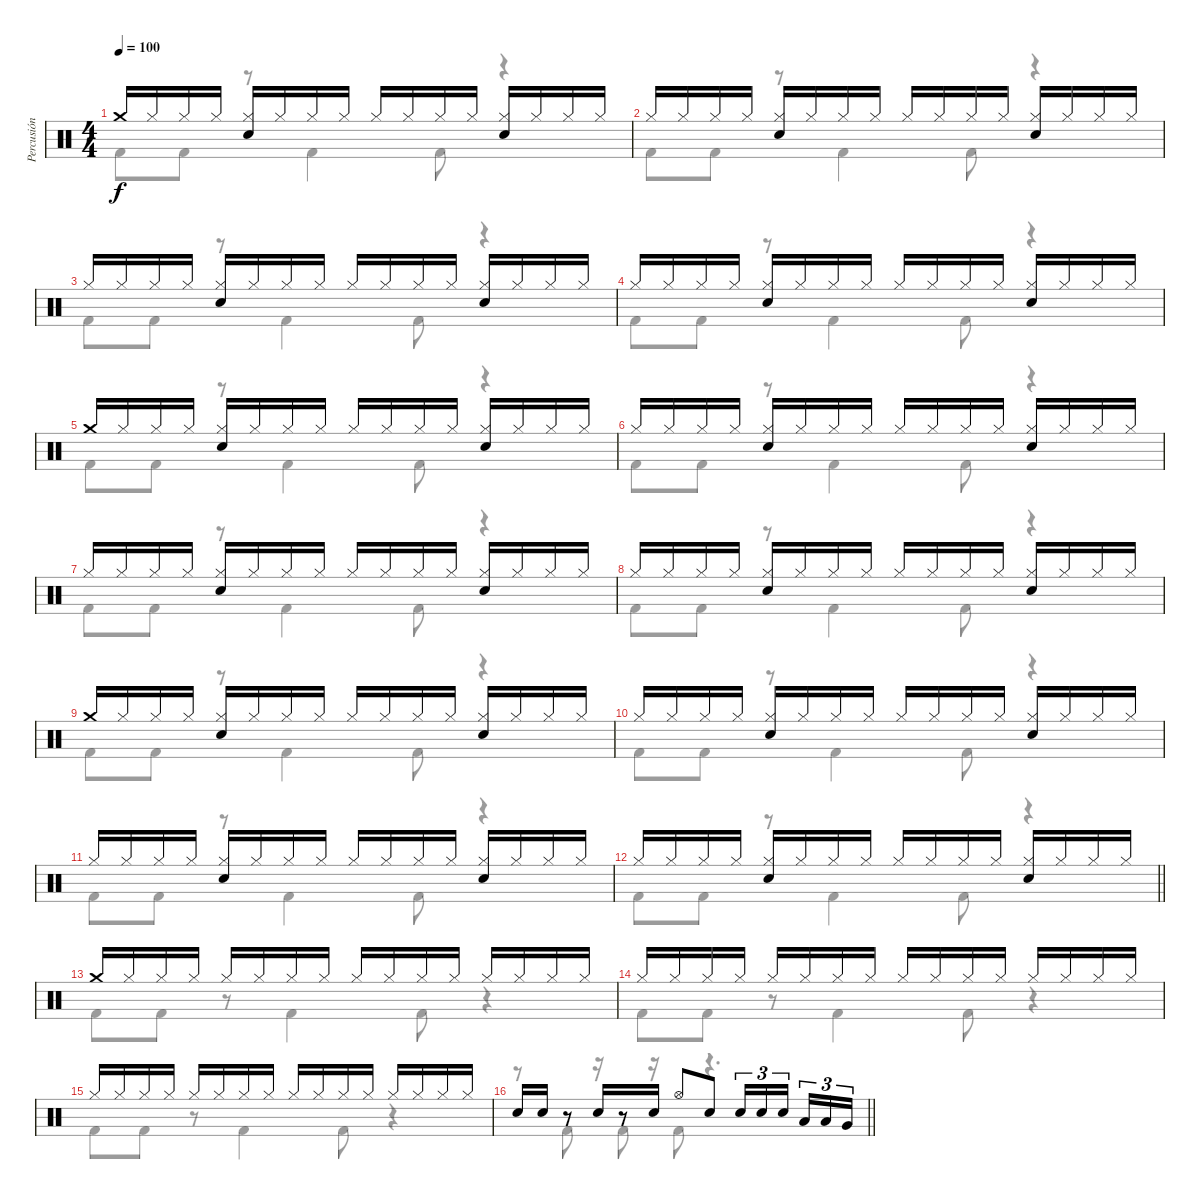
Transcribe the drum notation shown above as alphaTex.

\track ("Percusión" "Percusión") {instrument percussion}
\staff {score}
\articulation defaults
\voice
\ts (4 4)
\tempo 100
\clef neutral
\ks c "Crash medium (hit)".16{dy f} "Hi-Hat (closed)".16 "Hi-Hat (closed)".16 "Hi-Hat (closed)".16
("Hi-Hat (closed)" "Snare (hit) 2").16 "Hi-Hat (closed)".16 "Hi-Hat (closed)".16 "Hi-Hat (closed)".16 "Hi-Hat (closed)".16 "Hi-Hat (closed)".16 "Hi-Hat (closed)".16 "Hi-Hat (closed)".16 ("Hi-Hat (closed)" "Snare (hit) 2").16 "Hi-Hat (closed)".16 "Hi-Hat (closed)".16 "Hi-Hat (closed)".16 |
"Hi-Hat (closed)".16 "Hi-Hat (closed)".16 "Hi-Hat (closed)".16 "Hi-Hat (closed)".16 ("Hi-Hat (closed)" "Snare (hit) 2").16 "Hi-Hat (closed)".16 "Hi-Hat (closed)".16 "Hi-Hat (closed)".16 "Hi-Hat (closed)".16 "Hi-Hat (closed)".16 "Hi-Hat (closed)".16 "Hi-Hat (closed)".16 ("Hi-Hat (closed)" "Snare (hit) 2").16 "Hi-Hat (closed)".16 "Hi-Hat (closed)".16 "Hi-Hat (closed)".16 |
"Hi-Hat (closed)".16 "Hi-Hat (closed)".16 "Hi-Hat (closed)".16 "Hi-Hat (closed)".16 ("Hi-Hat (closed)" "Snare (hit) 2").16 "Hi-Hat (closed)".16 "Hi-Hat (closed)".16 "Hi-Hat (closed)".16 "Hi-Hat (closed)".16 "Hi-Hat (closed)".16 "Hi-Hat (closed)".16 "Hi-Hat (closed)".16 ("Hi-Hat (closed)" "Snare (hit) 2").16 "Hi-Hat (closed)".16 "Hi-Hat (closed)".16 "Hi-Hat (closed)".16 |
"Hi-Hat (closed)".16 "Hi-Hat (closed)".16 "Hi-Hat (closed)".16 "Hi-Hat (closed)".16 ("Hi-Hat (closed)" "Snare (hit) 2").16 "Hi-Hat (closed)".16 "Hi-Hat (closed)".16 "Hi-Hat (closed)".16 "Hi-Hat (closed)".16 "Hi-Hat (closed)".16 "Hi-Hat (closed)".16 "Hi-Hat (closed)".16 ("Hi-Hat (closed)" "Snare (hit) 2").16 "Hi-Hat (closed)".16 "Hi-Hat (closed)".16 "Hi-Hat (closed)".16 |
"Crash medium (hit)".16 "Hi-Hat (closed)".16 "Hi-Hat (closed)".16 "Hi-Hat (closed)".16 ("Hi-Hat (closed)" "Snare (hit) 2").16 "Hi-Hat (closed)".16 "Hi-Hat (closed)".16 "Hi-Hat (closed)".16 "Hi-Hat (closed)".16 "Hi-Hat (closed)".16 "Hi-Hat (closed)".16 "Hi-Hat (closed)".16 ("Hi-Hat (closed)" "Snare (hit) 2").16 "Hi-Hat (closed)".16 "Hi-Hat (closed)".16 "Hi-Hat (closed)".16 |
"Hi-Hat (closed)".16 "Hi-Hat (closed)".16 "Hi-Hat (closed)".16 "Hi-Hat (closed)".16 ("Hi-Hat (closed)" "Snare (hit) 2").16 "Hi-Hat (closed)".16 "Hi-Hat (closed)".16 "Hi-Hat (closed)".16 "Hi-Hat (closed)".16 "Hi-Hat (closed)".16 "Hi-Hat (closed)".16 "Hi-Hat (closed)".16 ("Hi-Hat (closed)" "Snare (hit) 2").16 "Hi-Hat (closed)".16 "Hi-Hat (closed)".16 "Hi-Hat (closed)".16 |
"Hi-Hat (closed)".16 "Hi-Hat (closed)".16 "Hi-Hat (closed)".16 "Hi-Hat (closed)".16 ("Hi-Hat (closed)" "Snare (hit) 2").16 "Hi-Hat (closed)".16 "Hi-Hat (closed)".16 "Hi-Hat (closed)".16 "Hi-Hat (closed)".16 "Hi-Hat (closed)".16 "Hi-Hat (closed)".16 "Hi-Hat (closed)".16 ("Hi-Hat (closed)" "Snare (hit) 2").16 "Hi-Hat (closed)".16 "Hi-Hat (closed)".16 "Hi-Hat (closed)".16 |
"Hi-Hat (closed)".16 "Hi-Hat (closed)".16 "Hi-Hat (closed)".16 "Hi-Hat (closed)".16 ("Hi-Hat (closed)" "Snare (hit) 2").16 "Hi-Hat (closed)".16 "Hi-Hat (closed)".16 "Hi-Hat (closed)".16 "Hi-Hat (closed)".16 "Hi-Hat (closed)".16 "Hi-Hat (closed)".16 "Hi-Hat (closed)".16 ("Hi-Hat (closed)" "Snare (hit) 2").16 "Hi-Hat (closed)".16 "Hi-Hat (closed)".16 "Hi-Hat (closed)".16 |
"Crash medium (hit)".16 "Hi-Hat (closed)".16 "Hi-Hat (closed)".16 "Hi-Hat (closed)".16 ("Hi-Hat (closed)" "Snare (hit) 2").16 "Hi-Hat (closed)".16 "Hi-Hat (closed)".16 "Hi-Hat (closed)".16 "Hi-Hat (closed)".16 "Hi-Hat (closed)".16 "Hi-Hat (closed)".16 "Hi-Hat (closed)".16 ("Hi-Hat (closed)" "Snare (hit) 2").16 "Hi-Hat (closed)".16 "Hi-Hat (closed)".16 "Hi-Hat (closed)".16 |
"Hi-Hat (closed)".16 "Hi-Hat (closed)".16 "Hi-Hat (closed)".16 "Hi-Hat (closed)".16 ("Hi-Hat (closed)" "Snare (hit) 2").16 "Hi-Hat (closed)".16 "Hi-Hat (closed)".16 "Hi-Hat (closed)".16 "Hi-Hat (closed)".16 "Hi-Hat (closed)".16 "Hi-Hat (closed)".16 "Hi-Hat (closed)".16 ("Hi-Hat (closed)" "Snare (hit) 2").16 "Hi-Hat (closed)".16 "Hi-Hat (closed)".16 "Hi-Hat (closed)".16 |
"Hi-Hat (closed)".16 "Hi-Hat (closed)".16 "Hi-Hat (closed)".16 "Hi-Hat (closed)".16 ("Hi-Hat (closed)" "Snare (hit) 2").16 "Hi-Hat (closed)".16 "Hi-Hat (closed)".16 "Hi-Hat (closed)".16 "Hi-Hat (closed)".16 "Hi-Hat (closed)".16 "Hi-Hat (closed)".16 "Hi-Hat (closed)".16 ("Hi-Hat (closed)" "Snare (hit) 2").16 "Hi-Hat (closed)".16 "Hi-Hat (closed)".16 "Hi-Hat (closed)".16 |
\barLineRight lightlight "Hi-Hat (closed)".16 "Hi-Hat (closed)".16 "Hi-Hat (closed)".16 "Hi-Hat (closed)".16
("Hi-Hat (closed)" "Snare (hit) 2").16 "Hi-Hat (closed)".16 "Hi-Hat (closed)".16 "Hi-Hat (closed)".16 "Hi-Hat (closed)".16 "Hi-Hat (closed)".16 "Hi-Hat (closed)".16 "Hi-Hat (closed)".16 ("Hi-Hat (closed)" "Snare (hit) 2").16 "Hi-Hat (closed)".16 "Hi-Hat (closed)".16 "Hi-Hat (closed)".16 |
"Crash medium (hit)".16 "Hi-Hat (closed)".16 "Hi-Hat (closed)".16 "Hi-Hat (closed)".16 "Hi-Hat (closed)".16 "Hi-Hat (closed)".16 "Hi-Hat (closed)".16 "Hi-Hat (closed)".16 "Hi-Hat (closed)".16 "Hi-Hat (closed)".16 "Hi-Hat (closed)".16 "Hi-Hat (closed)".16 "Hi-Hat (closed)".16 "Hi-Hat (closed)".16 "Hi-Hat (closed)".16 "Hi-Hat (closed)".16 |
"Hi-Hat (closed)".16 "Hi-Hat (closed)".16 "Hi-Hat (closed)".16 "Hi-Hat (closed)".16 "Hi-Hat (closed)".16 "Hi-Hat (closed)".16 "Hi-Hat (closed)".16 "Hi-Hat (closed)".16 "Hi-Hat (closed)".16 "Hi-Hat (closed)".16 "Hi-Hat (closed)".16 "Hi-Hat (closed)".16 "Hi-Hat (closed)".16 "Hi-Hat (closed)".16 "Hi-Hat (closed)".16 "Hi-Hat (closed)".16 |
"Hi-Hat (closed)".16 "Hi-Hat (closed)".16 "Hi-Hat (closed)".16 "Hi-Hat (closed)".16 "Hi-Hat (closed)".16 "Hi-Hat (closed)".16 "Hi-Hat (closed)".16 "Hi-Hat (closed)".16 "Hi-Hat (closed)".16 "Hi-Hat (closed)".16 "Hi-Hat (closed)".16 "Hi-Hat (closed)".16 "Hi-Hat (closed)".16 "Hi-Hat (closed)".16 "Hi-Hat (closed)".16 "Hi-Hat (closed)".16 |
\barLineRight lightlight "Snare (hit) 2".16 "Snare (hit) 2".16
r.8 "Snare (hit) 2".16 r.8 "Snare (hit) 2".16 "Hi-Hat (open)".8 "Snare (hit) 2".8 "Snare (hit) 2".16{tu (3 2)} "Snare (hit) 2".16{tu (3 2)} "Snare (hit) 2".16{tu (3 2) beam splitsecondary} "Low Tom (hit)".16{tu (3 2)} "Low Tom (hit)".16{tu (3 2)} "Very Low Tom (hit)".16{tu (3 2)}
\voice
\clef neutral
\ottava regular
\simile none
\ks c "Kick (hit) 2".8{dy f} "Kick (hit) 2".8
r.8 "Kick (hit) 2".4 "Kick (hit) 2".8 r.4 |
"Kick (hit) 2".8 "Kick (hit) 2".8 r.8 "Kick (hit) 2".4 "Kick (hit) 2".8 r.4 |
"Kick (hit) 2".8 "Kick (hit) 2".8 r.8 "Kick (hit) 2".4 "Kick (hit) 2".8 r.4 |
"Kick (hit) 2".8 "Kick (hit) 2".8 r.8 "Kick (hit) 2".4 "Kick (hit) 2".8 r.4 |
"Kick (hit) 2".8 "Kick (hit) 2".8 r.8 "Kick (hit) 2".4 "Kick (hit) 2".8 r.4 |
"Kick (hit) 2".8 "Kick (hit) 2".8 r.8 "Kick (hit) 2".4 "Kick (hit) 2".8 r.4 |
"Kick (hit) 2".8 "Kick (hit) 2".8 r.8 "Kick (hit) 2".4 "Kick (hit) 2".8 r.4 |
"Kick (hit) 2".8 "Kick (hit) 2".8 r.8 "Kick (hit) 2".4 "Kick (hit) 2".8 r.4 |
"Kick (hit) 2".8 "Kick (hit) 2".8 r.8 "Kick (hit) 2".4 "Kick (hit) 2".8 r.4 |
"Kick (hit) 2".8 "Kick (hit) 2".8 r.8 "Kick (hit) 2".4 "Kick (hit) 2".8 r.4 |
"Kick (hit) 2".8 "Kick (hit) 2".8 r.8 "Kick (hit) 2".4 "Kick (hit) 2".8 r.4 |
\barLineRight lightlight "Kick (hit) 2".8 "Kick (hit) 2".8
r.8 "Kick (hit) 2".4 "Kick (hit) 2".8 r.4 |
"Kick (hit) 2".8 "Kick (hit) 2".8 r.8 "Kick (hit) 2".4 "Kick (hit) 2".8 r.4 |
"Kick (hit) 2".8 "Kick (hit) 2".8 r.8 "Kick (hit) 2".4 "Kick (hit) 2".8 r.4 |
"Kick (hit) 2".8 "Kick (hit) 2".8 r.8 "Kick (hit) 2".4 "Kick (hit) 2".8 r.4 |
\barLineRight lightlight
r.8 "Kick (hit) 2".8 r.16 "Kick (hit) 2".8 r.16 "Kick (hit) 2".8 r.4{d}
